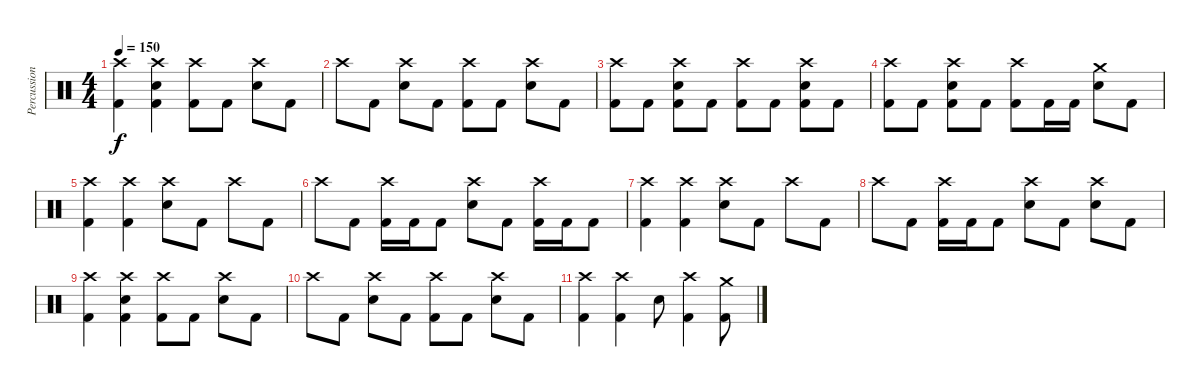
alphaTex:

\track ("Percussion" "Percussion") {instrument percussion}
\staff {score}
\articulation defaults
\ts (4 4)
\tempo 150
\clef neutral
\ks c
("Crash high (hit)" "Kick (hit) 2").4{dy f} ("Kick (hit) 2" "Crash high (hit)" "Snare (hit) 2").4 ("Kick (hit) 2" "Crash high (hit)").8 "Kick (hit) 2".8 ("Snare (hit) 2" "Crash high (hit)").8 "Kick (hit) 2".8 |
"Crash high (hit)".8 "Kick (hit) 2".8 ("Snare (hit) 2" "Crash high (hit)").8 "Kick (hit) 2".8 ("Crash high (hit)" "Kick (hit) 2").8 "Kick (hit) 2".8 ("Crash high (hit)" "Snare (hit) 2").8 "Kick (hit) 2".8 |
("Kick (hit) 2" "Crash high (hit)").8 "Kick (hit) 2".8 ("Kick (hit) 2" "Crash high (hit)" "Snare (hit) 2").8 "Kick (hit) 2".8 ("Kick (hit) 2" "Crash high (hit)").8 "Kick (hit) 2".8 ("Kick (hit) 2" "Crash high (hit)" "Snare (hit) 2").8 "Kick (hit) 2".8 |
("Kick (hit) 2" "Crash high (hit)").8 "Kick (hit) 2".8 ("Kick (hit) 2" "Crash high (hit)" "Snare (hit) 2").8 "Kick (hit) 2".8 ("Kick (hit) 2" "Crash high (hit)").8 "Kick (hit) 2".16 "Kick (hit) 2".16 ("Snare (hit) 2" "Crash medium (hit)").8 "Kick (hit) 2".8 |
("Crash high (hit)" "Kick (hit) 2").4 ("Kick (hit) 2" "Crash high (hit)").4 ("Snare (hit) 2" "Crash high (hit)").8 "Kick (hit) 2".8 "Crash high (hit)".8 "Kick (hit) 2".8 |
"Crash high (hit)".8 "Kick (hit) 2".8 ("Kick (hit) 2" "Crash high (hit)").16 "Kick (hit) 2".16 "Kick (hit) 2".8 ("Snare (hit) 2" "Crash high (hit)").8 "Kick (hit) 2".8 ("Kick (hit) 2" "Crash high (hit)").16 "Kick (hit) 2".16 "Kick (hit) 2".8 |
("Crash high (hit)" "Kick (hit) 2").4 ("Kick (hit) 2" "Crash high (hit)").4 ("Snare (hit) 2" "Crash high (hit)").8 "Kick (hit) 2".8 "Crash high (hit)".8 "Kick (hit) 2".8 |
"Crash high (hit)".8 "Kick (hit) 2".8 ("Kick (hit) 2" "Crash high (hit)").16 "Kick (hit) 2".16 "Kick (hit) 2".8 ("Snare (hit) 2" "Crash high (hit)").8 "Kick (hit) 2".8 ("Snare (hit) 2" "Crash high (hit)").8 "Kick (hit) 2".8 |
("Crash high (hit)" "Kick (hit) 2").4 ("Kick (hit) 2" "Crash high (hit)" "Snare (hit) 2").4 ("Kick (hit) 2" "Crash high (hit)").8 "Kick (hit) 2".8 ("Snare (hit) 2" "Crash high (hit)").8 "Kick (hit) 2".8 |
"Crash high (hit)".8 "Kick (hit) 2".8 ("Snare (hit) 2" "Crash high (hit)").8 "Kick (hit) 2".8 ("Crash high (hit)" "Kick (hit) 2").8 "Kick (hit) 2".8 ("Crash high (hit)" "Snare (hit) 2").8 "Kick (hit) 2".8 |
("Crash high (hit)" "Kick (hit) 2").4 ("Kick (hit) 2" "Crash high (hit)").4 "Snare (hit) 2".8 ("Crash high (hit)" "Kick (hit) 2").4 ("Kick (hit) 2" "Crash medium (hit)").8
